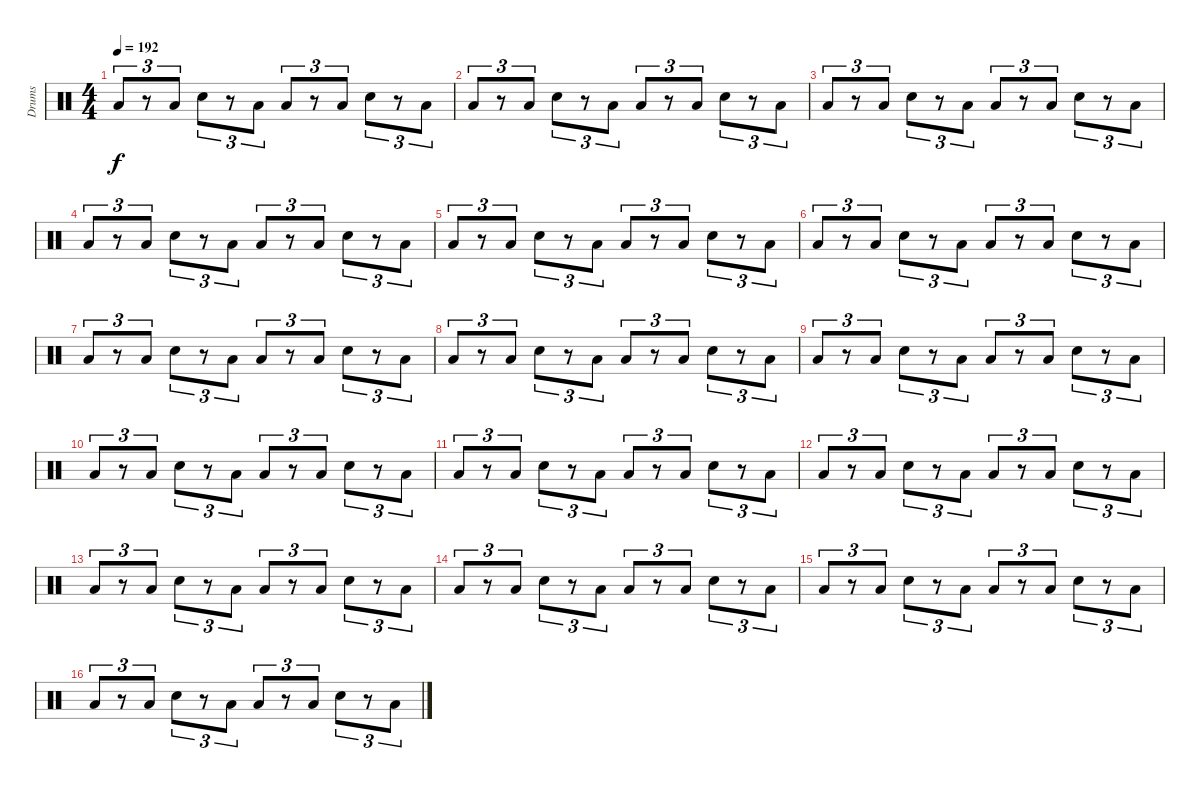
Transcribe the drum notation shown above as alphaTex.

\track ("Drums" "Drums") {instrument percussion}
\staff {score}
\articulation defaults
\ts (4 4)
\tempo 192
\clef neutral
\ks c "Low Floor Tom (hit)".8{tu (3 2) dy f}
r.8{tu (3 2)} "Low Tom (hit)".8{tu (3 2)} "Snare (hit) 2".8{tu (3 2)} r.8{tu (3 2)} "Low Tom (hit)".8{tu (3 2)} "Low Floor Tom (hit)".8{tu (3 2)} r.8{tu (3 2)} "Low Tom (hit)".8{tu (3 2)} "Snare (hit) 2".8{tu (3 2)} r.8{tu (3 2)} "Low Tom (hit)".8{tu (3 2)} |
"Low Floor Tom (hit)".8{tu (3 2)} r.8{tu (3 2)} "Low Tom (hit)".8{tu (3 2)} "Snare (hit) 2".8{tu (3 2)} r.8{tu (3 2)} "Low Tom (hit)".8{tu (3 2)} "Low Floor Tom (hit)".8{tu (3 2)} r.8{tu (3 2)} "Low Tom (hit)".8{tu (3 2)} "Snare (hit) 2".8{tu (3 2)} r.8{tu (3 2)} "Low Tom (hit)".8{tu (3 2)} |
"Low Floor Tom (hit)".8{tu (3 2)} r.8{tu (3 2)} "Low Tom (hit)".8{tu (3 2)} "Snare (hit) 2".8{tu (3 2)} r.8{tu (3 2)} "Low Tom (hit)".8{tu (3 2)} "Low Floor Tom (hit)".8{tu (3 2)} r.8{tu (3 2)} "Low Tom (hit)".8{tu (3 2)} "Snare (hit) 2".8{tu (3 2)} r.8{tu (3 2)} "Low Tom (hit)".8{tu (3 2)} |
"Low Floor Tom (hit)".8{tu (3 2)} r.8{tu (3 2)} "Low Tom (hit)".8{tu (3 2)} "Snare (hit) 2".8{tu (3 2)} r.8{tu (3 2)} "Low Tom (hit)".8{tu (3 2)} "Low Floor Tom (hit)".8{tu (3 2)} r.8{tu (3 2)} "Low Tom (hit)".8{tu (3 2)} "Snare (hit) 2".8{tu (3 2)} r.8{tu (3 2)} "Low Tom (hit)".8{tu (3 2)} |
"Low Floor Tom (hit)".8{tu (3 2)} r.8{tu (3 2)} "Low Tom (hit)".8{tu (3 2)} "Snare (hit) 2".8{tu (3 2)} r.8{tu (3 2)} "Low Tom (hit)".8{tu (3 2)} "Low Floor Tom (hit)".8{tu (3 2)} r.8{tu (3 2)} "Low Tom (hit)".8{tu (3 2)} "Snare (hit) 2".8{tu (3 2)} r.8{tu (3 2)} "Low Tom (hit)".8{tu (3 2)} |
"Low Floor Tom (hit)".8{tu (3 2)} r.8{tu (3 2)} "Low Tom (hit)".8{tu (3 2)} "Snare (hit) 2".8{tu (3 2)} r.8{tu (3 2)} "Low Tom (hit)".8{tu (3 2)} "Low Floor Tom (hit)".8{tu (3 2)} r.8{tu (3 2)} "Low Tom (hit)".8{tu (3 2)} "Snare (hit) 2".8{tu (3 2)} r.8{tu (3 2)} "Low Tom (hit)".8{tu (3 2)} |
"Low Floor Tom (hit)".8{tu (3 2)} r.8{tu (3 2)} "Low Tom (hit)".8{tu (3 2)} "Snare (hit) 2".8{tu (3 2)} r.8{tu (3 2)} "Low Tom (hit)".8{tu (3 2)} "Low Floor Tom (hit)".8{tu (3 2)} r.8{tu (3 2)} "Low Tom (hit)".8{tu (3 2)} "Snare (hit) 2".8{tu (3 2)} r.8{tu (3 2)} "Low Tom (hit)".8{tu (3 2)} |
"Low Floor Tom (hit)".8{tu (3 2)} r.8{tu (3 2)} "Low Tom (hit)".8{tu (3 2)} "Snare (hit) 2".8{tu (3 2)} r.8{tu (3 2)} "Low Tom (hit)".8{tu (3 2)} "Low Floor Tom (hit)".8{tu (3 2)} r.8{tu (3 2)} "Low Tom (hit)".8{tu (3 2)} "Snare (hit) 2".8{tu (3 2)} r.8{tu (3 2)} "Low Tom (hit)".8{tu (3 2)} |
"Low Floor Tom (hit)".8{tu (3 2)} r.8{tu (3 2)} "Low Tom (hit)".8{tu (3 2)} "Snare (hit) 2".8{tu (3 2)} r.8{tu (3 2)} "Low Tom (hit)".8{tu (3 2)} "Low Floor Tom (hit)".8{tu (3 2)} r.8{tu (3 2)} "Low Tom (hit)".8{tu (3 2)} "Snare (hit) 2".8{tu (3 2)} r.8{tu (3 2)} "Low Tom (hit)".8{tu (3 2)} |
"Low Floor Tom (hit)".8{tu (3 2)} r.8{tu (3 2)} "Low Tom (hit)".8{tu (3 2)} "Snare (hit) 2".8{tu (3 2)} r.8{tu (3 2)} "Low Tom (hit)".8{tu (3 2)} "Low Floor Tom (hit)".8{tu (3 2)} r.8{tu (3 2)} "Low Tom (hit)".8{tu (3 2)} "Snare (hit) 2".8{tu (3 2)} r.8{tu (3 2)} "Low Tom (hit)".8{tu (3 2)} |
"Low Floor Tom (hit)".8{tu (3 2)} r.8{tu (3 2)} "Low Tom (hit)".8{tu (3 2)} "Snare (hit) 2".8{tu (3 2)} r.8{tu (3 2)} "Low Tom (hit)".8{tu (3 2)} "Low Floor Tom (hit)".8{tu (3 2)} r.8{tu (3 2)} "Low Tom (hit)".8{tu (3 2)} "Snare (hit) 2".8{tu (3 2)} r.8{tu (3 2)} "Low Tom (hit)".8{tu (3 2)} |
"Low Floor Tom (hit)".8{tu (3 2)} r.8{tu (3 2)} "Low Tom (hit)".8{tu (3 2)} "Snare (hit) 2".8{tu (3 2)} r.8{tu (3 2)} "Low Tom (hit)".8{tu (3 2)} "Low Floor Tom (hit)".8{tu (3 2)} r.8{tu (3 2)} "Low Tom (hit)".8{tu (3 2)} "Snare (hit) 2".8{tu (3 2)} r.8{tu (3 2)} "Low Tom (hit)".8{tu (3 2)} |
"Low Floor Tom (hit)".8{tu (3 2)} r.8{tu (3 2)} "Low Tom (hit)".8{tu (3 2)} "Snare (hit) 2".8{tu (3 2)} r.8{tu (3 2)} "Low Tom (hit)".8{tu (3 2)} "Low Floor Tom (hit)".8{tu (3 2)} r.8{tu (3 2)} "Low Tom (hit)".8{tu (3 2)} "Snare (hit) 2".8{tu (3 2)} r.8{tu (3 2)} "Low Tom (hit)".8{tu (3 2)} |
"Low Floor Tom (hit)".8{tu (3 2)} r.8{tu (3 2)} "Low Tom (hit)".8{tu (3 2)} "Snare (hit) 2".8{tu (3 2)} r.8{tu (3 2)} "Low Tom (hit)".8{tu (3 2)} "Low Floor Tom (hit)".8{tu (3 2)} r.8{tu (3 2)} "Low Tom (hit)".8{tu (3 2)} "Snare (hit) 2".8{tu (3 2)} r.8{tu (3 2)} "Low Tom (hit)".8{tu (3 2)} |
"Low Floor Tom (hit)".8{tu (3 2)} r.8{tu (3 2)} "Low Tom (hit)".8{tu (3 2)} "Snare (hit) 2".8{tu (3 2)} r.8{tu (3 2)} "Low Tom (hit)".8{tu (3 2)} "Low Floor Tom (hit)".8{tu (3 2)} r.8{tu (3 2)} "Low Tom (hit)".8{tu (3 2)} "Snare (hit) 2".8{tu (3 2)} r.8{tu (3 2)} "Low Tom (hit)".8{tu (3 2)} |
"Low Floor Tom (hit)".8{tu (3 2)} r.8{tu (3 2)} "Low Tom (hit)".8{tu (3 2)} "Snare (hit) 2".8{tu (3 2)} r.8{tu (3 2)} "Low Tom (hit)".8{tu (3 2)} "Low Floor Tom (hit)".8{tu (3 2)} r.8{tu (3 2)} "Low Tom (hit)".8{tu (3 2)} "Snare (hit) 2".8{tu (3 2)} r.8{tu (3 2)} "Low Tom (hit)".8{tu (3 2)}
